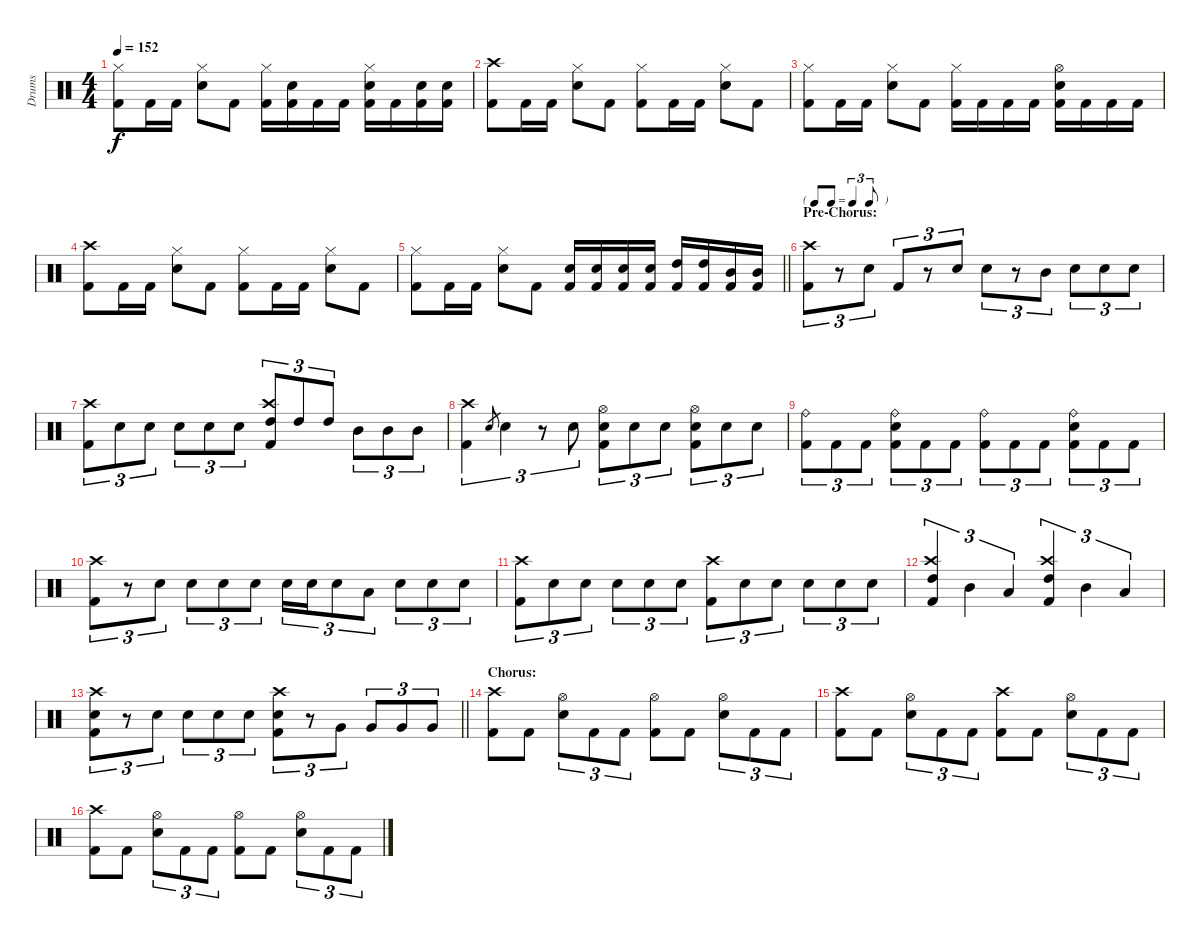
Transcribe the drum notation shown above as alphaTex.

\track ("Drums" "Drums") {instrument percussion}
\staff {score}
\articulation defaults
\ts (4 4)
\tempo 152
\clef neutral
\ks c
("Hi-Hat (closed)" "Kick (hit) 2").8{dy f} "Kick (hit) 2".16 "Kick (hit) 2".16 ("Hi-Hat (closed)" "Snare (hit) 2").8 "Kick (hit) 2".8 ("Hi-Hat (closed)" "Kick (hit) 2").16 ("Snare (hit) 2" "Kick (hit) 2").16 "Kick (hit) 2".16 "Kick (hit) 2".16 ("Hi-Hat (closed)" "Snare (hit) 2" "Kick (hit) 2").16 "Kick (hit) 2".16 ("Snare (hit) 2" "Kick (hit) 2").16 ("Snare (hit) 2" "Kick (hit) 2").16 |
("Crash high (hit)" "Kick (hit) 2").8 "Kick (hit) 2".16 "Kick (hit) 2".16 ("Hi-Hat (closed)" "Snare (hit) 2").8 "Kick (hit) 2".8 ("Hi-Hat (closed)" "Kick (hit) 2").8 "Kick (hit) 2".16 "Kick (hit) 2".16 ("Hi-Hat (closed)" "Snare (hit) 2").8 "Kick (hit) 2".8 |
("Hi-Hat (closed)" "Kick (hit) 2").8 "Kick (hit) 2".16 "Kick (hit) 2".16 ("Hi-Hat (closed)" "Snare (hit) 2").8 "Kick (hit) 2".8 ("Hi-Hat (closed)" "Kick (hit) 2").16 "Kick (hit) 2".16 "Kick (hit) 2".16 "Kick (hit) 2".16 ("Hi-Hat (open)" "Snare (hit) 2" "Kick (hit) 2").16 "Kick (hit) 2".16 "Kick (hit) 2".16 "Kick (hit) 2".16 |
("Crash high (hit)" "Kick (hit) 2").8 "Kick (hit) 2".16 "Kick (hit) 2".16 ("Hi-Hat (closed)" "Snare (hit) 2").8 "Kick (hit) 2".8 ("Hi-Hat (closed)" "Kick (hit) 2").8 "Kick (hit) 2".16 "Kick (hit) 2".16 ("Hi-Hat (closed)" "Snare (hit) 2").8 "Kick (hit) 2".8 |
\barLineRight lightlight
("Hi-Hat (closed)" "Kick (hit) 2").8 "Kick (hit) 2".16 "Kick (hit) 2".16 ("Hi-Hat (closed)" "Snare (hit) 2").8 "Kick (hit) 2".8 ("Snare (hit) 2" "Kick (hit) 2").16 ("Snare (hit) 2" "Kick (hit) 2").16 ("Snare (hit) 2" "Kick (hit) 2").16 ("Snare (hit) 2" "Kick (hit) 2").16 ("High Tom (hit)" "Kick (hit) 2").16 ("High Tom (hit)" "Kick (hit) 2").16 ("Mid Tom (hit)" "Kick (hit) 2").16 ("Mid Tom (hit)" "Kick (hit) 2").16 |
\tf triplet8th
\section ("" "Pre-Chorus:")
("Crash high (hit)" "Kick (hit) 2").8{tu (3 2)} r.8{tu (3 2)} "Snare (hit) 2".8{tu (3 2)} "Kick (hit) 2".8{tu (3 2)} r.8{tu (3 2)} "Snare (hit) 2".8{tu (3 2)} "Snare (hit) 2".8{tu (3 2)} r.8{tu (3 2)} "Mid Tom (hit)".8{tu (3 2)} "Snare (hit) 2".8{tu (3 2)} "Snare (hit) 2".8{tu (3 2)} "Snare (hit) 2".8{tu (3 2)} |
("Crash high (hit)" "Kick (hit) 2").8{tu (3 2)} "Snare (hit) 2".8{tu (3 2)} "Snare (hit) 2".8{tu (3 2)} "Snare (hit) 2".8{tu (3 2)} "Snare (hit) 2".8{tu (3 2)} "Snare (hit) 2".8{tu (3 2)} ("Crash high (hit)" "High Tom (hit)" "Kick (hit) 2").8{tu (3 2)} "High Tom (hit)".8{tu (3 2)} "High Tom (hit)".8{tu (3 2)} "Mid Tom (hit)".8{tu (3 2)} "Mid Tom (hit)".8{tu (3 2)} "Mid Tom (hit)".8{tu (3 2)} |
("Crash high (hit)" "Kick (hit) 2").4{tu (3 2)} "Snare (hit) 2".8{gr} "Snare (hit) 2".4{tu (3 2)} r.8{tu (3 2)} "Snare (hit) 2".8{tu (3 2)} ("Hi-Hat (open)" "Snare (hit) 2" "Kick (hit) 2").8{tu (3 2)} "Snare (hit) 2".8{tu (3 2)} "Snare (hit) 2".8{tu (3 2)} ("Hi-Hat (open)" "Snare (hit) 2" "Kick (hit) 2").8{tu (3 2)} "Snare (hit) 2".8{tu (3 2)} "Snare (hit) 2".8{tu (3 2)} |
("Ride (bell)" "Kick (hit) 2").8{tu (3 2)} "Kick (hit) 2".8{tu (3 2)} "Kick (hit) 2".8{tu (3 2)} ("Ride (bell)" "Snare (hit) 2" "Kick (hit) 2").8{tu (3 2)} "Kick (hit) 2".8{tu (3 2)} "Kick (hit) 2".8{tu (3 2)} ("Ride (bell)" "Kick (hit) 2").8{tu (3 2)} "Kick (hit) 2".8{tu (3 2)} "Kick (hit) 2".8{tu (3 2)} ("Ride (bell)" "Snare (hit) 2" "Kick (hit) 2").8{tu (3 2)} "Kick (hit) 2".8{tu (3 2)} "Kick (hit) 2".8{tu (3 2)} |
("Crash high (hit)" "Kick (hit) 2").8{tu (3 2)} r.8{tu (3 2)} "Snare (hit) 2".8{tu (3 2)} "Snare (hit) 2".8{tu (3 2)} "Snare (hit) 2".8{tu (3 2)} "Snare (hit) 2".8{tu (3 2)} "Snare (hit) 2".16{tu (3 2)} "Snare (hit) 2".16{tu (3 2)} "Snare (hit) 2".8{tu (3 2)} "Low Tom (hit)".8{tu (3 2)} "Snare (hit) 2".8{tu (3 2)} "Snare (hit) 2".8{tu (3 2)} "Snare (hit) 2".8{tu (3 2)} |
("Crash high (hit)" "Kick (hit) 2").8{tu (3 2)} "Snare (hit) 2".8{tu (3 2)} "Snare (hit) 2".8{tu (3 2)} "Snare (hit) 2".8{tu (3 2)} "Snare (hit) 2".8{tu (3 2)} "Snare (hit) 2".8{tu (3 2)} ("Crash high (hit)" "Kick (hit) 2").8{tu (3 2)} "Snare (hit) 2".8{tu (3 2)} "Snare (hit) 2".8{tu (3 2)} "Snare (hit) 2".8{tu (3 2)} "Snare (hit) 2".8{tu (3 2)} "Snare (hit) 2".8{tu (3 2)} |
("Crash high (hit)" "High Tom (hit)" "Kick (hit) 2").4{tu (3 2)} "Mid Tom (hit)".4{tu (3 2)} "Low Tom (hit)".4{tu (3 2)} ("Crash high (hit)" "High Tom (hit)" "Kick (hit) 2").4{tu (3 2)} "Mid Tom (hit)".4{tu (3 2)} "Low Tom (hit)".4{tu (3 2)} |
\barLineRight lightlight
("Crash high (hit)" "Snare (hit) 2" "Kick (hit) 2").8{tu (3 2)} r.8{tu (3 2)} "Snare (hit) 2".8{tu (3 2)} "Snare (hit) 2".8{tu (3 2)} "Snare (hit) 2".8{tu (3 2)} "Snare (hit) 2".8{tu (3 2)} ("Crash high (hit)" "Snare (hit) 2" "Kick (hit) 2").8{tu (3 2)} r.8{tu (3 2)} "Very Low Tom (hit)".8{tu (3 2)} "Very Low Tom (hit)".8{tu (3 2)} "Very Low Tom (hit)".8{tu (3 2)} "Very Low Tom (hit)".8{tu (3 2)} |
\section ("" "Chorus:")
("Crash high (hit)" "Kick (hit) 2").8 "Kick (hit) 2".8 ("Hi-Hat (open)" "Snare (hit) 2").8{tu (3 2)} "Kick (hit) 2".8{tu (3 2)} "Kick (hit) 2".8{tu (3 2)} ("Hi-Hat (open)" "Kick (hit) 2").8 "Kick (hit) 2".8 ("Hi-Hat (open)" "Snare (hit) 2").8{tu (3 2)} "Kick (hit) 2".8{tu (3 2)} "Kick (hit) 2".8{tu (3 2)} |
("Crash high (hit)" "Kick (hit) 2").8 "Kick (hit) 2".8 ("Hi-Hat (open)" "Snare (hit) 2").8{tu (3 2)} "Kick (hit) 2".8{tu (3 2)} "Kick (hit) 2".8{tu (3 2)} ("Crash high (hit)" "Kick (hit) 2").8 "Kick (hit) 2".8 ("Hi-Hat (open)" "Snare (hit) 2").8{tu (3 2)} "Kick (hit) 2".8{tu (3 2)} "Kick (hit) 2".8{tu (3 2)} |
("Crash high (hit)" "Kick (hit) 2").8 "Kick (hit) 2".8 ("Hi-Hat (open)" "Snare (hit) 2").8{tu (3 2)} "Kick (hit) 2".8{tu (3 2)} "Kick (hit) 2".8{tu (3 2)} ("Hi-Hat (open)" "Kick (hit) 2").8 "Kick (hit) 2".8 ("Hi-Hat (open)" "Snare (hit) 2").8{tu (3 2)} "Kick (hit) 2".8{tu (3 2)} "Kick (hit) 2".8{tu (3 2)}
